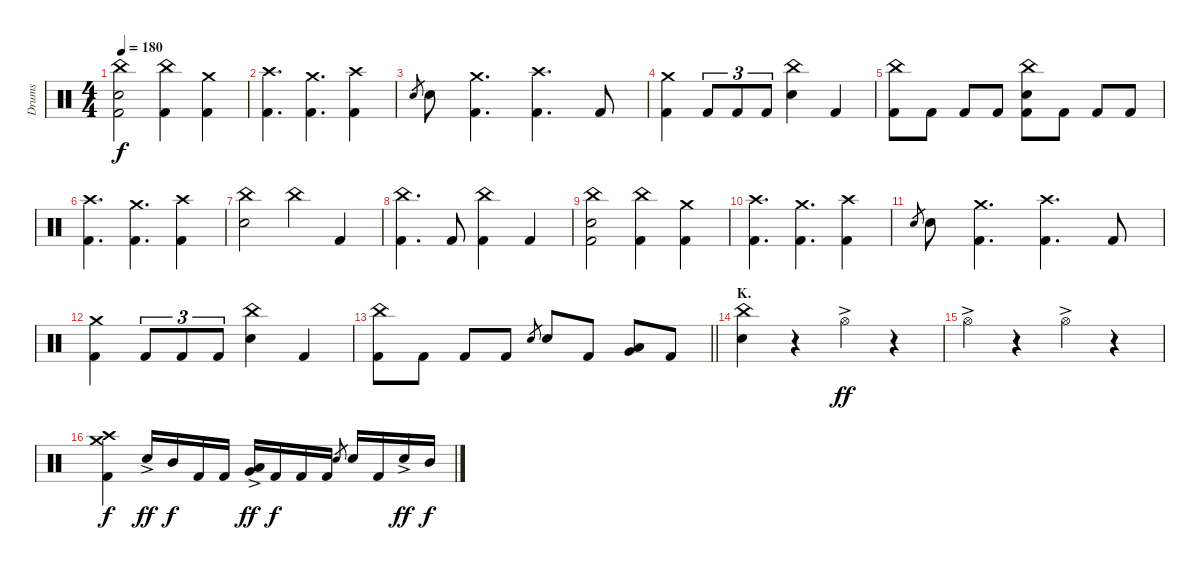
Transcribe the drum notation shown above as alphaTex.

\track ("Drums" "Drums") {instrument percussion}
\staff {score}
\articulation defaults
\ts (4 4)
\tempo 180
\clef neutral
\ks c
("China (hit)" "Electric Snare (hit)" "Kick (hit) 2").2{dy f} ("China (hit)" "Kick (hit) 2").4 ("Crash medium (hit)" "Kick (hit) 2").4 |
("Crash high (hit)" "Kick (hit) 2").4{d} ("Crash medium (hit)" "Kick (hit) 2").4{d} ("Crash high (hit)" "Kick (hit) 2").4 |
"Electric Snare (hit)".8{gr} "Electric Snare (hit)".8 ("Crash medium (hit)" "Kick (hit) 2").4{d} ("Crash high (hit)" "Kick (hit) 2").4{d} "Kick (hit) 2".8 |
("Crash medium (hit)" "Kick (hit) 2").4 "Kick (hit) 2".8{tu (3 2)} "Kick (hit) 2".8{tu (3 2)} "Kick (hit) 2".8{tu (3 2)} ("China (hit)" "Electric Snare (hit)").4 "Kick (hit) 2".4 |
("China (hit)" "Kick (hit) 2").8 "Kick (hit) 2".8 "Kick (hit) 2".8 "Kick (hit) 2".8 ("China (hit)" "Electric Snare (hit)" "Kick (hit) 2").8 "Kick (hit) 2".8 "Kick (hit) 2".8 "Kick (hit) 2".8 |
("Crash high (hit)" "Kick (hit) 2").4{d} ("Crash medium (hit)" "Kick (hit) 2").4{d} ("Crash high (hit)" "Kick (hit) 2").4 |
("China (hit)" "Electric Snare (hit)").2 "China (hit)".4 "Kick (hit) 2".4 |
("China (hit)" "Kick (hit) 2").4{d} "Kick (hit) 2".8 ("China (hit)" "Kick (hit) 2").4 "Kick (hit) 2".4 |
("China (hit)" "Electric Snare (hit)" "Kick (hit) 2").2 ("China (hit)" "Kick (hit) 2").4 ("Crash medium (hit)" "Kick (hit) 2").4 |
("Crash high (hit)" "Kick (hit) 2").4{d} ("Crash medium (hit)" "Kick (hit) 2").4{d} ("Crash high (hit)" "Kick (hit) 2").4 |
"Electric Snare (hit)".8{gr} "Electric Snare (hit)".8 ("Crash medium (hit)" "Kick (hit) 2").4{d} ("Crash high (hit)" "Kick (hit) 2").4{d} "Kick (hit) 2".8 |
("Crash medium (hit)" "Kick (hit) 2").4 "Kick (hit) 2".8{tu (3 2)} "Kick (hit) 2".8{tu (3 2)} "Kick (hit) 2".8{tu (3 2)} ("China (hit)" "Electric Snare (hit)").4 "Kick (hit) 2".4 |
\barLineRight lightlight
("China (hit)" "Kick (hit) 2").8 "Kick (hit) 2".8 "Kick (hit) 2".8 "Kick (hit) 2".8 "Electric Snare (hit)".8{gr} "Electric Snare (hit)".8 "Kick (hit) 2".8 ("Low Tom (hit)" "Very Low Tom (hit)").8{bu 120} "Kick (hit) 2".8 |
\section ("" "K.")
("China (hit)" "Electric Snare (hit)").4 r.4 "Hi-Hat (open)"{ac}.4{dy ff} r.4 |
"Hi-Hat (open)"{ac}.4 r.4 "Hi-Hat (open)"{ac}.4 r.4 |
("Crash medium (hit)" "Crash high (hit)" "Kick (hit) 2").4{dy f} "Electric Snare (hit)"{ac}.16{dy ff} "Mid Tom (hit)".16{dy f} "Kick (hit) 2".16 "Kick (hit) 2".16 ("Low Tom (hit)" "Very Low Tom (hit)"{ac}).16{bu 60 dy ff} "Kick (hit) 2".16{dy f} "Kick (hit) 2".16 "Kick (hit) 2".16 "Electric Snare (hit)".8{gr} "Electric Snare (hit)".16 "Kick (hit) 2".16 "Electric Snare (hit)"{ac}.16{dy ff} "Mid Tom (hit)".16{dy f}
